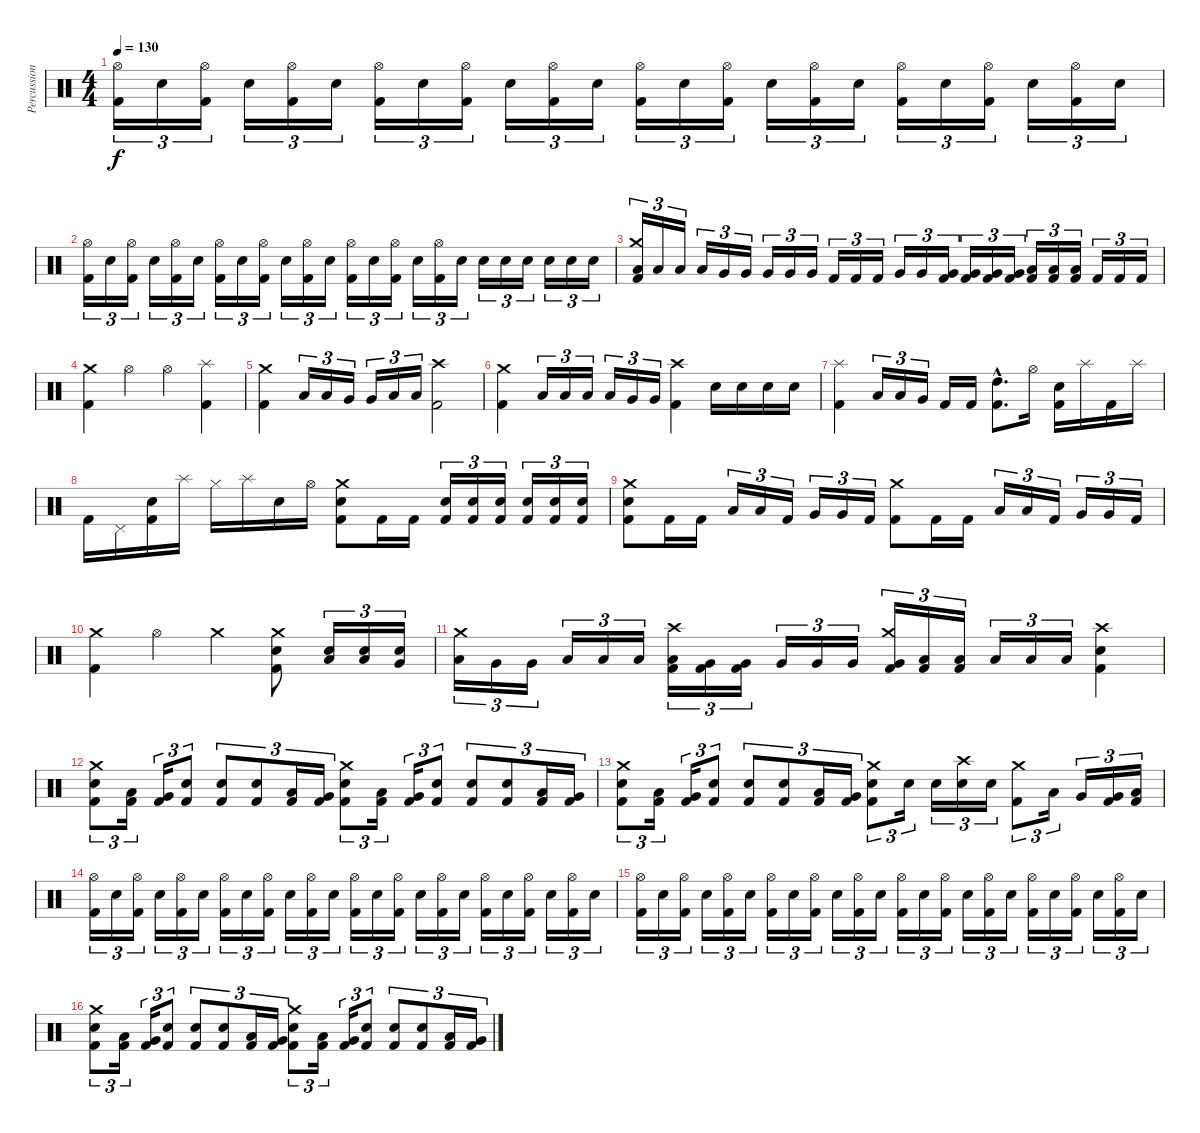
\track ("Percussion" "Percussion") {instrument percussion}
\staff {score}
\articulation defaults
\ts (4 4)
\tempo 130
\clef neutral
\ks c
("Hi-Hat (open)" "Kick (hit) 2").16{tu (3 2) dy f} "Snare (hit) 2".16{tu (3 2)} ("Hi-Hat (open)" "Kick (hit) 2").16{tu (3 2)} "Snare (hit) 2".16{tu (3 2)} ("Hi-Hat (open)" "Kick (hit) 2").16{tu (3 2)} "Snare (hit) 2".16{tu (3 2)} ("Hi-Hat (open)" "Kick (hit) 2").16{tu (3 2)} "Snare (hit) 2".16{tu (3 2)} ("Hi-Hat (open)" "Kick (hit) 2").16{tu (3 2)} "Snare (hit) 2".16{tu (3 2)} ("Hi-Hat (open)" "Kick (hit) 2").16{tu (3 2)} "Snare (hit) 2".16{tu (3 2)} ("Hi-Hat (open)" "Kick (hit) 2").16{tu (3 2)} "Snare (hit) 2".16{tu (3 2)} ("Hi-Hat (open)" "Kick (hit) 2").16{tu (3 2)} "Snare (hit) 2".16{tu (3 2)} ("Hi-Hat (open)" "Kick (hit) 2").16{tu (3 2)} "Snare (hit) 2".16{tu (3 2)} ("Hi-Hat (open)" "Kick (hit) 2").16{tu (3 2)} "Snare (hit) 2".16{tu (3 2)} ("Hi-Hat (open)" "Kick (hit) 2").16{tu (3 2)} "Snare (hit) 2".16{tu (3 2)} ("Hi-Hat (open)" "Kick (hit) 2").16{tu (3 2)} "Snare (hit) 2".16{tu (3 2)} |
("Hi-Hat (open)" "Kick (hit) 2").16{tu (3 2)} "Snare (hit) 2".16{tu (3 2)} ("Hi-Hat (open)" "Kick (hit) 2").16{tu (3 2)} "Snare (hit) 2".16{tu (3 2)} ("Hi-Hat (open)" "Kick (hit) 2").16{tu (3 2)} "Snare (hit) 2".16{tu (3 2)} ("Hi-Hat (open)" "Kick (hit) 2").16{tu (3 2)} "Snare (hit) 2".16{tu (3 2)} ("Hi-Hat (open)" "Kick (hit) 2").16{tu (3 2)} "Snare (hit) 2".16{tu (3 2)} ("Hi-Hat (open)" "Kick (hit) 2").16{tu (3 2)} "Snare (hit) 2".16{tu (3 2)} ("Hi-Hat (open)" "Kick (hit) 2").16{tu (3 2)} "Snare (hit) 2".16{tu (3 2)} ("Hi-Hat (open)" "Kick (hit) 2").16{tu (3 2)} "Snare (hit) 2".16{tu (3 2)} ("Hi-Hat (open)" "Kick (hit) 2").16{tu (3 2)} "Snare (hit) 2".16{tu (3 2)} "Snare (hit) 2".16{tu (3 2)} "Snare (hit) 2".16{tu (3 2)} "Snare (hit) 2".16{tu (3 2)} "Snare (hit) 2".16{tu (3 2)} "Snare (hit) 2".16{tu (3 2)} "Snare (hit) 2".16{tu (3 2)} |
("Crash medium (hit)" "Low Tom (hit)" "Kick (hit) 2").16{tu (3 2)} "Low Tom (hit)".16{tu (3 2)} "Low Tom (hit)".16{tu (3 2)} "Low Tom (hit)".16{tu (3 2)} "Very Low Tom (hit)".16{tu (3 2)} "Very Low Tom (hit)".16{tu (3 2)} "Very Low Tom (hit)".16{tu (3 2)} "Very Low Tom (hit)".16{tu (3 2)} "Very Low Tom (hit)".16{tu (3 2)} "Kick (hit) 2".16{tu (3 2)} "Kick (hit) 2".16{tu (3 2)} "Kick (hit) 2".16{tu (3 2)} "Very Low Tom (hit)".16{tu (3 2)} "Very Low Tom (hit)".16{tu (3 2)} ("Very Low Tom (hit)" "Kick (hit) 2").16{tu (3 2)} ("Very Low Tom (hit)" "Kick (hit) 2").16{tu (3 2)} ("Very Low Tom (hit)" "Kick (hit) 2").16{tu (3 2)} ("Very Low Tom (hit)" "Kick (hit) 2").16{tu (3 2)} ("Low Floor Tom (hit)" "Kick (hit) 2").16{tu (3 2)} ("Low Floor Tom (hit)" "Kick (hit) 2").16{tu (3 2)} ("Low Floor Tom (hit)" "Kick (hit) 2").16{tu (3 2)} "Kick (hit) 2".16{tu (3 2)} "Kick (hit) 2".16{tu (3 2)} "Kick (hit) 2".16{tu (3 2)} |
("Crash medium (hit)" "Kick (hit) 2").4 "Hi-Hat (open)".4 "Hi-Hat (open)".4 ("Splash (hit)" "Kick (hit) 2").4 |
("Crash medium (hit)" "Kick (hit) 2").4 "Low Tom (hit)".16{tu (3 2)} "Low Tom (hit)".16{tu (3 2)} "Very Low Tom (hit)".16{tu (3 2)} "Very Low Tom (hit)".16{tu (3 2)} "Low Floor Tom (hit)".16{tu (3 2)} "Low Floor Tom (hit)".16{tu (3 2)} ("Crash high (hit)" "Kick (hit) 2").2 |
("Crash medium (hit)" "Kick (hit) 2").4 "Low Tom (hit)".16{tu (3 2)} "Low Tom (hit)".16{tu (3 2)} "Low Tom (hit)".16{tu (3 2)} "Low Tom (hit)".16{tu (3 2)} "Very Low Tom (hit)".16{tu (3 2)} "Very Low Tom (hit)".16{tu (3 2)} ("Crash high (hit)" "Kick (hit) 2").4 "Snare (hit) 2".16 "Snare (hit) 2".16 "Snare (hit) 2".16 "Snare (hit) 2".16 |
("Splash (hit)" "Kick (hit) 2").4 "Low Tom (hit)".16{tu (3 2)} "Low Tom (hit)".16{tu (3 2)} "Very Low Tom (hit)".16{tu (3 2)} "Kick (hit) 2".16 "Kick (hit) 2".16 ("High Tom (hit)"{hac} "Kick (hit) 2"{hac}).8{d} "Hi-Hat (open)".16 ("Snare (hit) 2" "Kick (hit) 2").16 "Splash (hit)".16 "Kick (hit) 2".16 "Splash (hit)".16 |
"Kick (hit) 2".16 "Pedal Hi-Hat (hit)".16 ("Snare (hit) 2" "Kick (hit) 2").16 "Splash (hit)".16 "Hi-Hat (closed)".16 "Splash (hit)".16 "Snare (hit) 2".16 "Hi-Hat (open)".16 ("Crash medium (hit)" "Snare (hit) 2" "Kick (hit) 2").8 "Kick (hit) 2".16 "Kick (hit) 2".16 ("Snare (hit) 2" "Kick (hit) 2").16{tu (3 2)} ("Snare (hit) 2" "Kick (hit) 2").16{tu (3 2)} ("Snare (hit) 2" "Kick (hit) 2").16{tu (3 2)} ("Snare (hit) 2" "Kick (hit) 2").16{tu (3 2)} ("Snare (hit) 2" "Kick (hit) 2").16{tu (3 2)} ("Snare (hit) 2" "Kick (hit) 2").16{tu (3 2)} |
("Crash medium (hit)" "Snare (hit) 2" "Kick (hit) 2").8 "Kick (hit) 2".16 "Kick (hit) 2".16 "Low Tom (hit)".16{tu (3 2)} "Low Tom (hit)".16{tu (3 2)} "Kick (hit) 2".16{tu (3 2)} "Very Low Tom (hit)".16{tu (3 2)} "Very Low Tom (hit)".16{tu (3 2)} "Kick (hit) 2".16{tu (3 2)} ("Crash medium (hit)" "Kick (hit) 2").8 "Kick (hit) 2".16 "Kick (hit) 2".16 "Low Tom (hit)".16{tu (3 2)} "Low Tom (hit)".16{tu (3 2)} "Kick (hit) 2".16{tu (3 2)} "Very Low Tom (hit)".16{tu (3 2)} "Very Low Tom (hit)".16{tu (3 2)} "Kick (hit) 2".16{tu (3 2)} |
("Crash medium (hit)" "Kick (hit) 2").4 "Hi-Hat (open)".4 "Crash medium (hit)".4 ("Crash medium (hit)" "Snare (hit) 2" "Kick (hit) 2").8 ("Low Tom (hit)" "Snare (hit) 2").16{tu (3 2)} ("Low Tom (hit)" "Snare (hit) 2").16{tu (3 2)} ("Very Low Tom (hit)" "Snare (hit) 2").16{tu (3 2)} |
("Crash medium (hit)" "Low Tom (hit)").16{tu (3 2)} "Very Low Tom (hit)".16{tu (3 2)} "Very Low Tom (hit)".16{tu (3 2)} "Low Tom (hit)".16{tu (3 2)} "Low Tom (hit)".16{tu (3 2)} "Low Tom (hit)".16{tu (3 2)} ("Crash high (hit)" "Low Tom (hit)" "Kick (hit) 2").16{tu (3 2)} ("Very Low Tom (hit)" "Kick (hit) 2").16{tu (3 2)} ("Very Low Tom (hit)" "Kick (hit) 2").16{tu (3 2)} "Very Low Tom (hit)".16{tu (3 2)} "Very Low Tom (hit)".16{tu (3 2)} "Very Low Tom (hit)".16{tu (3 2)} ("Crash medium (hit)" "Very Low Tom (hit)" "Kick (hit) 2").16{tu (3 2)} ("Low Floor Tom (hit)" "Kick (hit) 2").16{tu (3 2)} ("Low Floor Tom (hit)" "Kick (hit) 2").16{tu (3 2)} "Low Floor Tom (hit)".16{tu (3 2)} "Low Floor Tom (hit)".16{tu (3 2)} "Low Floor Tom (hit)".16{tu (3 2)} ("Crash high (hit)" "Snare (hit) 2" "Kick (hit) 2").4 |
("Crash medium (hit)" "Snare (hit) 2" "Kick (hit) 2").8{tu (3 2)} ("Low Tom (hit)" "Kick (hit) 2").16{tu (3 2)} ("Very Low Tom (hit)" "Kick (hit) 2").16{tu (3 2)} ("Snare (hit) 2" "Kick (hit) 2").8{tu (3 2)} ("Snare (hit) 2" "Kick (hit) 2").8{tu (3 2)} ("Snare (hit) 2" "Kick (hit) 2").8{tu (3 2)} ("Low Tom (hit)" "Kick (hit) 2").16{tu (3 2)} ("Very Low Tom (hit)" "Kick (hit) 2").16{tu (3 2)} ("Crash medium (hit)" "Snare (hit) 2" "Kick (hit) 2").8{tu (3 2)} ("Low Tom (hit)" "Kick (hit) 2").16{tu (3 2)} ("Very Low Tom (hit)" "Kick (hit) 2").16{tu (3 2)} ("Snare (hit) 2" "Kick (hit) 2").8{tu (3 2)} ("Snare (hit) 2" "Kick (hit) 2").8{tu (3 2)} ("Snare (hit) 2" "Kick (hit) 2").8{tu (3 2)} ("Low Tom (hit)" "Kick (hit) 2").16{tu (3 2)} ("Very Low Tom (hit)" "Kick (hit) 2").16{tu (3 2)} |
("Crash medium (hit)" "Snare (hit) 2" "Kick (hit) 2").8{tu (3 2)} ("Low Tom (hit)" "Kick (hit) 2").16{tu (3 2)} ("Very Low Tom (hit)" "Kick (hit) 2").16{tu (3 2)} ("Snare (hit) 2" "Kick (hit) 2").8{tu (3 2)} ("Snare (hit) 2" "Kick (hit) 2").8{tu (3 2)} ("Snare (hit) 2" "Kick (hit) 2").8{tu (3 2)} ("Low Tom (hit)" "Kick (hit) 2").16{tu (3 2)} ("Very Low Tom (hit)" "Kick (hit) 2").16{tu (3 2)} ("Crash medium (hit)" "Snare (hit) 2" "Kick (hit) 2").8{tu (3 2)} "Snare (hit) 2".16{tu (3 2)} "Snare (hit) 2".16{tu (3 2)} ("Crash high (hit)" "Snare (hit) 2").16{tu (3 2)} "Snare (hit) 2".16{tu (3 2)} ("Crash medium (hit)" "Kick (hit) 2").8{tu (3 2)} "Low Tom (hit)".16{tu (3 2)} "Very Low Tom (hit)".16{tu (3 2)} ("Very Low Tom (hit)" "Kick (hit) 2").16{tu (3 2)} ("Low Floor Tom (hit)" "Kick (hit) 2").16{tu (3 2)} |
("Hi-Hat (open)" "Kick (hit) 2").16{tu (3 2)} "Snare (hit) 2".16{tu (3 2)} ("Hi-Hat (open)" "Kick (hit) 2").16{tu (3 2)} "Snare (hit) 2".16{tu (3 2)} ("Hi-Hat (open)" "Kick (hit) 2").16{tu (3 2)} "Snare (hit) 2".16{tu (3 2)} ("Hi-Hat (open)" "Kick (hit) 2").16{tu (3 2)} "Snare (hit) 2".16{tu (3 2)} ("Hi-Hat (open)" "Kick (hit) 2").16{tu (3 2)} "Snare (hit) 2".16{tu (3 2)} ("Hi-Hat (open)" "Kick (hit) 2").16{tu (3 2)} "Snare (hit) 2".16{tu (3 2)} ("Hi-Hat (open)" "Kick (hit) 2").16{tu (3 2)} "Snare (hit) 2".16{tu (3 2)} ("Hi-Hat (open)" "Kick (hit) 2").16{tu (3 2)} "Snare (hit) 2".16{tu (3 2)} ("Hi-Hat (open)" "Kick (hit) 2").16{tu (3 2)} "Snare (hit) 2".16{tu (3 2)} ("Hi-Hat (open)" "Kick (hit) 2").16{tu (3 2)} "Snare (hit) 2".16{tu (3 2)} ("Hi-Hat (open)" "Kick (hit) 2").16{tu (3 2)} "Snare (hit) 2".16{tu (3 2)} ("Hi-Hat (open)" "Kick (hit) 2").16{tu (3 2)} "Snare (hit) 2".16{tu (3 2)} |
("Hi-Hat (open)" "Kick (hit) 2").16{tu (3 2)} "Snare (hit) 2".16{tu (3 2)} ("Hi-Hat (open)" "Kick (hit) 2").16{tu (3 2)} "Snare (hit) 2".16{tu (3 2)} ("Hi-Hat (open)" "Kick (hit) 2").16{tu (3 2)} "Snare (hit) 2".16{tu (3 2)} ("Hi-Hat (open)" "Kick (hit) 2").16{tu (3 2)} "Snare (hit) 2".16{tu (3 2)} ("Hi-Hat (open)" "Kick (hit) 2").16{tu (3 2)} "Snare (hit) 2".16{tu (3 2)} ("Hi-Hat (open)" "Kick (hit) 2").16{tu (3 2)} "Snare (hit) 2".16{tu (3 2)} ("Hi-Hat (open)" "Kick (hit) 2").16{tu (3 2)} "Snare (hit) 2".16{tu (3 2)} ("Hi-Hat (open)" "Kick (hit) 2").16{tu (3 2)} "Snare (hit) 2".16{tu (3 2)} ("Hi-Hat (open)" "Kick (hit) 2").16{tu (3 2)} "Snare (hit) 2".16{tu (3 2)} ("Hi-Hat (open)" "Kick (hit) 2").16{tu (3 2)} "Snare (hit) 2".16{tu (3 2)} ("Hi-Hat (open)" "Kick (hit) 2").16{tu (3 2)} "Snare (hit) 2".16{tu (3 2)} ("Hi-Hat (open)" "Kick (hit) 2").16{tu (3 2)} "Snare (hit) 2".16{tu (3 2)} |
("Crash medium (hit)" "Snare (hit) 2" "Kick (hit) 2").8{tu (3 2)} ("Low Tom (hit)" "Kick (hit) 2").16{tu (3 2)} ("Very Low Tom (hit)" "Kick (hit) 2").16{tu (3 2)} ("Snare (hit) 2" "Kick (hit) 2").8{tu (3 2)} ("Snare (hit) 2" "Kick (hit) 2").8{tu (3 2)} ("Snare (hit) 2" "Kick (hit) 2").8{tu (3 2)} ("Low Tom (hit)" "Kick (hit) 2").16{tu (3 2)} ("Very Low Tom (hit)" "Kick (hit) 2").16{tu (3 2)} ("Crash medium (hit)" "Snare (hit) 2" "Kick (hit) 2").8{tu (3 2)} ("Low Tom (hit)" "Kick (hit) 2").16{tu (3 2)} ("Very Low Tom (hit)" "Kick (hit) 2").16{tu (3 2)} ("Snare (hit) 2" "Kick (hit) 2").8{tu (3 2)} ("Snare (hit) 2" "Kick (hit) 2").8{tu (3 2)} ("Snare (hit) 2" "Kick (hit) 2").8{tu (3 2)} ("Low Tom (hit)" "Kick (hit) 2").16{tu (3 2)} ("Very Low Tom (hit)" "Kick (hit) 2").16{tu (3 2)}
